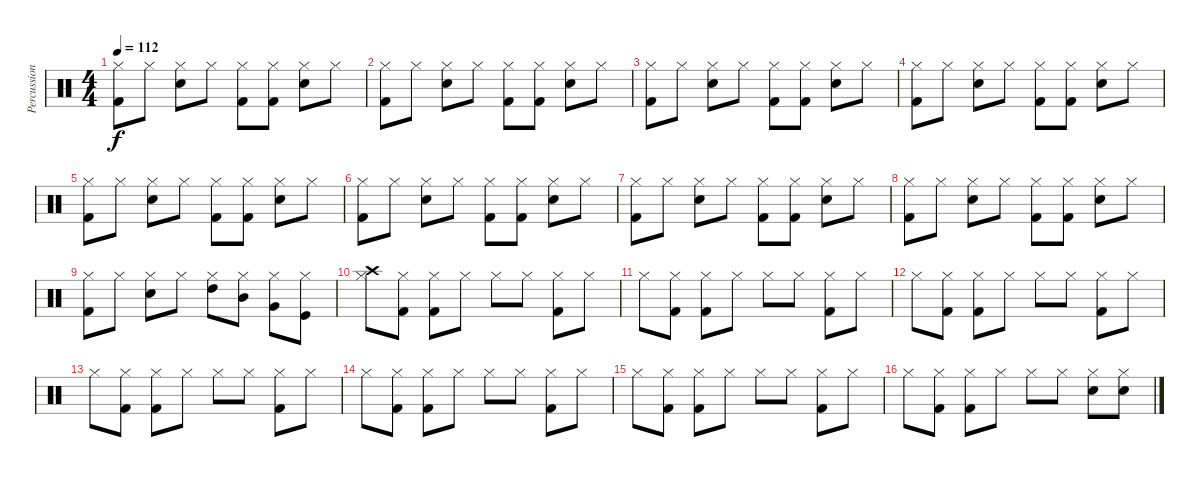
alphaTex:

\track ("Percussion" "Percussion") {instrument percussion}
\staff {score}
\articulation defaults
\ts (4 4)
\tempo 112
\clef neutral
\ks c
("Kick (hit) 2" "Hi-Hat (closed)").8{dy f} "Hi-Hat (closed)".8 ("Snare (hit) 2" "Hi-Hat (closed)").8 "Hi-Hat (closed)".8 ("Kick (hit) 2" "Hi-Hat (closed)").8 ("Kick (hit) 2" "Hi-Hat (closed)").8 ("Snare (hit) 2" "Hi-Hat (closed)").8 "Hi-Hat (closed)".8 |
("Kick (hit) 2" "Hi-Hat (closed)").8 "Hi-Hat (closed)".8 ("Snare (hit) 2" "Hi-Hat (closed)").8 "Hi-Hat (closed)".8 ("Kick (hit) 2" "Hi-Hat (closed)").8 ("Kick (hit) 2" "Hi-Hat (closed)").8 ("Snare (hit) 2" "Hi-Hat (closed)").8 "Hi-Hat (closed)".8 |
("Kick (hit) 2" "Hi-Hat (closed)").8 "Hi-Hat (closed)".8 ("Snare (hit) 2" "Hi-Hat (closed)").8 "Hi-Hat (closed)".8 ("Kick (hit) 2" "Hi-Hat (closed)").8 ("Kick (hit) 2" "Hi-Hat (closed)").8 ("Snare (hit) 2" "Hi-Hat (closed)").8 "Hi-Hat (closed)".8 |
("Kick (hit) 2" "Hi-Hat (closed)").8 "Hi-Hat (closed)".8 ("Snare (hit) 2" "Hi-Hat (closed)").8 "Hi-Hat (closed)".8 ("Kick (hit) 2" "Hi-Hat (closed)").8 ("Kick (hit) 2" "Hi-Hat (closed)").8 ("Snare (hit) 2" "Hi-Hat (closed)").8 "Hi-Hat (closed)".8 |
("Kick (hit) 2" "Hi-Hat (closed)").8 "Hi-Hat (closed)".8 ("Snare (hit) 2" "Hi-Hat (closed)").8 "Hi-Hat (closed)".8 ("Kick (hit) 2" "Hi-Hat (closed)").8 ("Kick (hit) 2" "Hi-Hat (closed)").8 ("Snare (hit) 2" "Hi-Hat (closed)").8 "Hi-Hat (closed)".8 |
("Kick (hit) 2" "Hi-Hat (closed)").8 "Hi-Hat (closed)".8 ("Snare (hit) 2" "Hi-Hat (closed)").8 "Hi-Hat (closed)".8 ("Kick (hit) 2" "Hi-Hat (closed)").8 ("Kick (hit) 2" "Hi-Hat (closed)").8 ("Snare (hit) 2" "Hi-Hat (closed)").8 "Hi-Hat (closed)".8 |
("Kick (hit) 2" "Hi-Hat (closed)").8 "Hi-Hat (closed)".8 ("Snare (hit) 2" "Hi-Hat (closed)").8 "Hi-Hat (closed)".8 ("Kick (hit) 2" "Hi-Hat (closed)").8 ("Kick (hit) 2" "Hi-Hat (closed)").8 ("Snare (hit) 2" "Hi-Hat (closed)").8 "Hi-Hat (closed)".8 |
("Kick (hit) 2" "Hi-Hat (closed)").8 "Hi-Hat (closed)".8 ("Snare (hit) 2" "Hi-Hat (closed)").8 "Hi-Hat (closed)".8 ("Kick (hit) 2" "Hi-Hat (closed)").8 ("Kick (hit) 2" "Hi-Hat (closed)").8 ("Snare (hit) 2" "Hi-Hat (closed)").8 "Hi-Hat (closed)".8 |
("Kick (hit) 2" "Hi-Hat (closed)").8 "Hi-Hat (closed)".8 ("Snare (hit) 2" "Hi-Hat (closed)").8 "Hi-Hat (closed)".8 ("High Tom (hit)" "Hi-Hat (closed)").8 ("Mid Tom (hit)" "Hi-Hat (closed)").8 ("Very Low Tom (hit)" "Hi-Hat (closed)").8 ("Kick (hit)" "Hi-Hat (closed)").8 |
("Crash high (hit)" "Hi-Hat (closed)").8 ("Kick (hit) 2" "Hi-Hat (closed)").8 ("Kick (hit) 2" "Hi-Hat (closed)").8 "Hi-Hat (closed)".8 "Hi-Hat (closed)".8 "Hi-Hat (closed)".8 ("Kick (hit) 2" "Hi-Hat (closed)").8 "Hi-Hat (closed)".8 |
"Hi-Hat (closed)".8 ("Kick (hit) 2" "Hi-Hat (closed)").8 ("Kick (hit) 2" "Hi-Hat (closed)").8 "Hi-Hat (closed)".8 "Hi-Hat (closed)".8 "Hi-Hat (closed)".8 ("Kick (hit) 2" "Hi-Hat (closed)").8 "Hi-Hat (closed)".8 |
"Hi-Hat (closed)".8 ("Kick (hit) 2" "Hi-Hat (closed)").8 ("Kick (hit) 2" "Hi-Hat (closed)").8 "Hi-Hat (closed)".8 "Hi-Hat (closed)".8 "Hi-Hat (closed)".8 ("Kick (hit) 2" "Hi-Hat (closed)").8 "Hi-Hat (closed)".8 |
"Hi-Hat (closed)".8 ("Kick (hit) 2" "Hi-Hat (closed)").8 ("Kick (hit) 2" "Hi-Hat (closed)").8 "Hi-Hat (closed)".8 "Hi-Hat (closed)".8 "Hi-Hat (closed)".8 ("Kick (hit) 2" "Hi-Hat (closed)").8 "Hi-Hat (closed)".8 |
"Hi-Hat (closed)".8 ("Kick (hit) 2" "Hi-Hat (closed)").8 ("Kick (hit) 2" "Hi-Hat (closed)").8 "Hi-Hat (closed)".8 "Hi-Hat (closed)".8 "Hi-Hat (closed)".8 ("Kick (hit) 2" "Hi-Hat (closed)").8 "Hi-Hat (closed)".8 |
"Hi-Hat (closed)".8 ("Kick (hit) 2" "Hi-Hat (closed)").8 ("Kick (hit) 2" "Hi-Hat (closed)").8 "Hi-Hat (closed)".8 "Hi-Hat (closed)".8 "Hi-Hat (closed)".8 ("Kick (hit) 2" "Hi-Hat (closed)").8 "Hi-Hat (closed)".8 |
"Hi-Hat (closed)".8 ("Kick (hit) 2" "Hi-Hat (closed)").8 ("Kick (hit) 2" "Hi-Hat (closed)").8 "Hi-Hat (closed)".8 "Hi-Hat (closed)".8 "Hi-Hat (closed)".8 ("Snare (hit) 2" "Hi-Hat (closed)").8 ("Snare (hit) 2" "Hi-Hat (closed)").8
